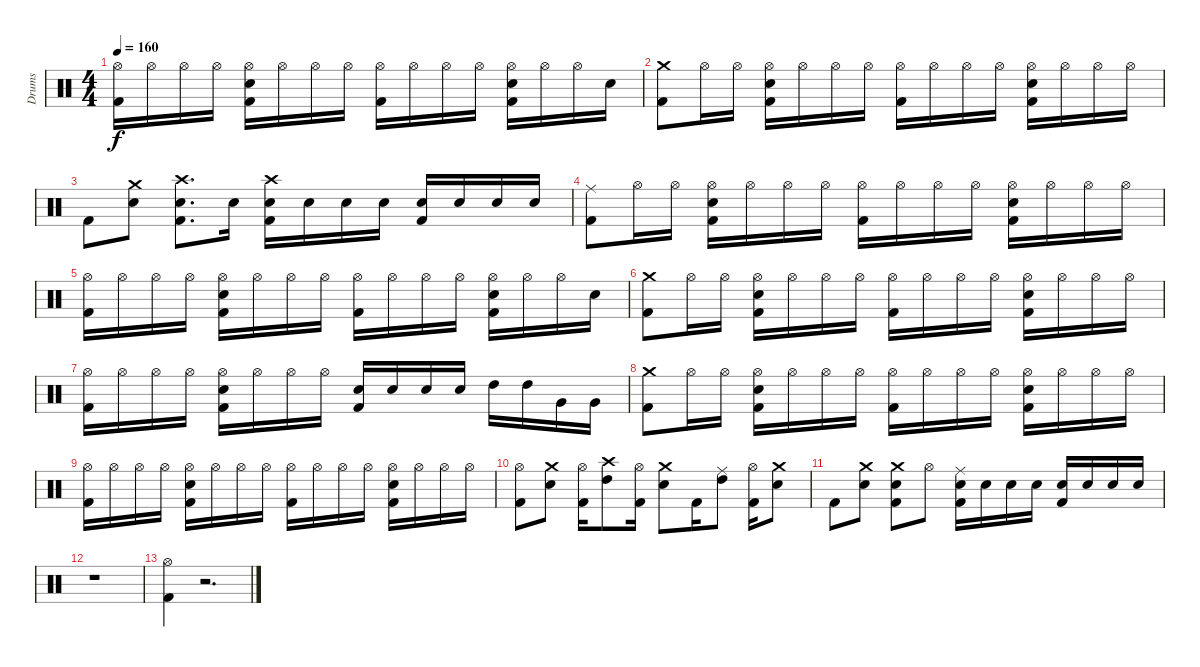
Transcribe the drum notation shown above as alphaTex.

\track ("Drums" "Drums") {instrument percussion}
\staff {score}
\articulation defaults
\ts (4 4)
\tempo 160
\clef neutral
\ks c
("Hi-Hat (open)" "Kick (hit) 2").16{dy f} "Hi-Hat (open)".16 "Hi-Hat (open)".16 "Hi-Hat (open)".16 ("Hi-Hat (open)" "Snare (hit) 2" "Kick (hit) 2").16 "Hi-Hat (open)".16 "Hi-Hat (open)".16 "Hi-Hat (open)".16 ("Hi-Hat (open)" "Kick (hit) 2").16 "Hi-Hat (open)".16 "Hi-Hat (open)".16 "Hi-Hat (open)".16 ("Hi-Hat (open)" "Snare (hit) 2" "Kick (hit) 2").16 "Hi-Hat (open)".16 "Hi-Hat (open)".16 "Snare (hit) 2".16 |
("Crash medium (hit)" "Kick (hit) 2").8 "Hi-Hat (open)".16 "Hi-Hat (open)".16 ("Hi-Hat (open)" "Snare (hit) 2" "Kick (hit) 2").16 "Hi-Hat (open)".16 "Hi-Hat (open)".16 "Hi-Hat (open)".16 ("Hi-Hat (open)" "Kick (hit) 2").16 "Hi-Hat (open)".16 "Hi-Hat (open)".16 "Hi-Hat (open)".16 ("Hi-Hat (open)" "Snare (hit) 2" "Kick (hit) 2").16 "Hi-Hat (open)".16 "Hi-Hat (open)".16 "Hi-Hat (open)".16 |
"Kick (hit) 2".8 ("Crash medium (hit)" "Snare (hit) 2").8 ("Crash high (hit)" "Snare (hit) 2" "Kick (hit) 2").8{d} "Snare (hit) 2".16 ("Crash high (hit)" "Snare (hit) 2" "Kick (hit) 2").16 "Snare (hit) 2".16 "Snare (hit) 2".16 "Snare (hit) 2".16 ("Snare (hit) 2" "Kick (hit) 2").16 "Snare (hit) 2".16 "Snare (hit) 2".16 "Snare (hit) 2".16 |
("Ride (middle)" "Kick (hit) 2").8 "Hi-Hat (open)".16 "Hi-Hat (open)".16 ("Hi-Hat (open)" "Snare (hit) 2" "Kick (hit) 2").16 "Hi-Hat (open)".16 "Hi-Hat (open)".16 "Hi-Hat (open)".16 ("Hi-Hat (open)" "Kick (hit) 2").16 "Hi-Hat (open)".16 "Hi-Hat (open)".16 "Hi-Hat (open)".16 ("Hi-Hat (open)" "Snare (hit) 2" "Kick (hit) 2").16 "Hi-Hat (open)".16 "Hi-Hat (open)".16 "Hi-Hat (open)".16 |
("Hi-Hat (open)" "Kick (hit) 2").16 "Hi-Hat (open)".16 "Hi-Hat (open)".16 "Hi-Hat (open)".16 ("Hi-Hat (open)" "Snare (hit) 2" "Kick (hit) 2").16 "Hi-Hat (open)".16 "Hi-Hat (open)".16 "Hi-Hat (open)".16 ("Hi-Hat (open)" "Kick (hit) 2").16 "Hi-Hat (open)".16 "Hi-Hat (open)".16 "Hi-Hat (open)".16 ("Hi-Hat (open)" "Snare (hit) 2" "Kick (hit) 2").16 "Hi-Hat (open)".16 "Hi-Hat (open)".16 "Snare (hit) 2".16 |
("Crash medium (hit)" "Kick (hit) 2").8 "Hi-Hat (open)".16 "Hi-Hat (open)".16 ("Hi-Hat (open)" "Snare (hit) 2" "Kick (hit) 2").16 "Hi-Hat (open)".16 "Hi-Hat (open)".16 "Hi-Hat (open)".16 ("Hi-Hat (open)" "Kick (hit) 2").16 "Hi-Hat (open)".16 "Hi-Hat (open)".16 "Hi-Hat (open)".16 ("Hi-Hat (open)" "Snare (hit) 2" "Kick (hit) 2").16 "Hi-Hat (open)".16 "Hi-Hat (open)".16 "Hi-Hat (open)".16 |
("Hi-Hat (open)" "Kick (hit) 2").16 "Hi-Hat (open)".16 "Hi-Hat (open)".16 "Hi-Hat (open)".16 ("Hi-Hat (open)" "Snare (hit) 2" "Kick (hit) 2").16 "Hi-Hat (open)".16 "Hi-Hat (open)".16 "Hi-Hat (open)".16 ("Snare (hit) 2" "Kick (hit) 2").16 "Snare (hit) 2".16 "Snare (hit) 2".16 "Snare (hit) 2".16 "High Tom (hit)".16 "High Tom (hit)".16 "Very Low Tom (hit)".16 "Very Low Tom (hit)".16 |
("Crash medium (hit)" "Kick (hit) 2").8 "Hi-Hat (open)".16 "Hi-Hat (open)".16 ("Hi-Hat (open)" "Snare (hit) 2" "Kick (hit) 2").16 "Hi-Hat (open)".16 "Hi-Hat (open)".16 "Hi-Hat (open)".16 ("Hi-Hat (open)" "Kick (hit) 2").16 "Hi-Hat (open)".16 "Hi-Hat (open)".16 "Hi-Hat (open)".16 ("Hi-Hat (open)" "Snare (hit) 2" "Kick (hit) 2").16 "Hi-Hat (open)".16 "Hi-Hat (open)".16 "Hi-Hat (open)".16 |
("Hi-Hat (open)" "Kick (hit) 2").16 "Hi-Hat (open)".16 "Hi-Hat (open)".16 "Hi-Hat (open)".16 ("Hi-Hat (open)" "Snare (hit) 2" "Kick (hit) 2").16 "Hi-Hat (open)".16 "Hi-Hat (open)".16 "Hi-Hat (open)".16 ("Hi-Hat (open)" "Kick (hit) 2").16 "Hi-Hat (open)".16 "Hi-Hat (open)".16 "Hi-Hat (open)".16 ("Hi-Hat (open)" "Snare (hit) 2" "Kick (hit) 2").16 "Hi-Hat (open)".16 "Hi-Hat (open)".16 "Hi-Hat (open)".16 |
("Hi-Hat (open)" "Kick (hit) 2").8 ("Crash medium (hit)" "Snare (hit) 2").8 ("Hi-Hat (open)" "Kick (hit) 2").16 ("Crash high (hit)" "High Tom (hit)").8 ("Hi-Hat (open)" "Kick (hit) 2").16 ("Crash medium (hit)" "Snare (hit) 2").8 "Kick (hit) 2".16 ("Ride (middle)" "High Tom (hit)").8 ("Hi-Hat (open)" "Kick (hit) 2").16 ("Crash medium (hit)" "Snare (hit) 2").8 |
"Kick (hit) 2".8 ("Crash medium (hit)" "Snare (hit) 2").8 ("Crash medium (hit)" "Snare (hit) 2" "Kick (hit) 2").8 "Hi-Hat (open)".8 ("Ride (middle)" "Snare (hit) 2" "Kick (hit) 2").16 "Snare (hit) 2".16 "Snare (hit) 2".16 "Snare (hit) 2".16 ("Snare (hit) 2" "Kick (hit) 2").16 "Snare (hit) 2".16 "Snare (hit) 2".16 "Snare (hit) 2".16 |
r.1 |
("Hi-Hat (open)" "Kick (hit) 2").4 r.2{d}
